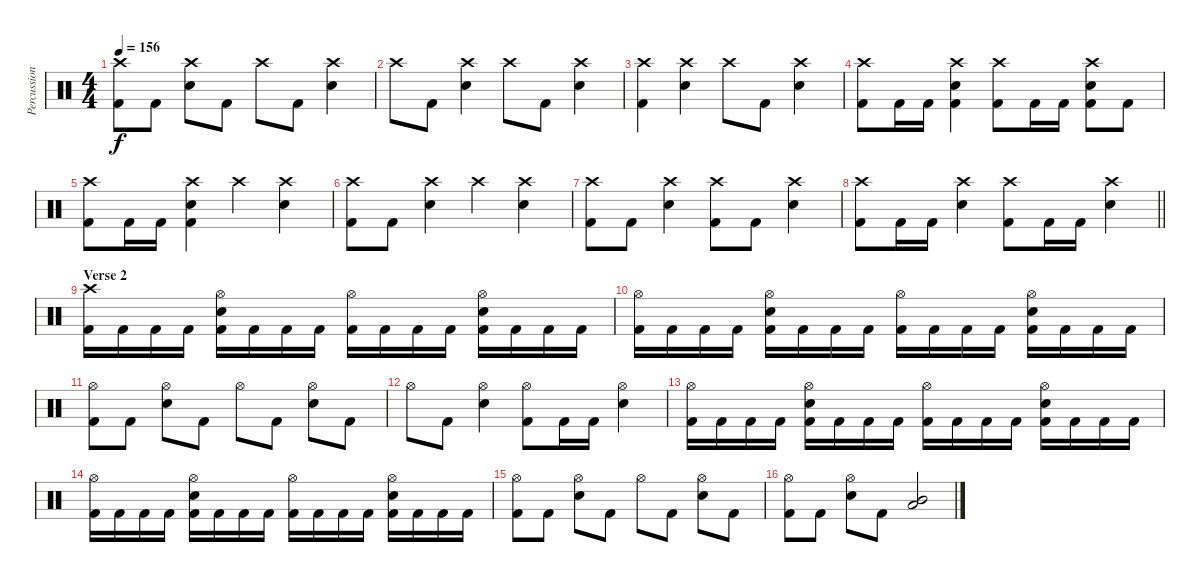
\track ("Percussion" "Percussion") {instrument percussion}
\staff {score}
\articulation defaults
\ts (4 4)
\tempo 156
\clef neutral
\ks c
("Crash high (hit)" "Kick (hit) 2").8{dy f} "Kick (hit) 2".8 ("Crash high (hit)" "Electric Snare (hit)").8 "Kick (hit) 2".8 "Crash high (hit)".8 "Kick (hit) 2".8 ("Crash high (hit)" "Electric Snare (hit)").4 |
"Crash high (hit)".8 "Kick (hit) 2".8 ("Crash high (hit)" "Electric Snare (hit)").4 "Crash high (hit)".8 "Kick (hit) 2".8 ("Crash high (hit)" "Electric Snare (hit)").4 |
("Crash high (hit)" "Kick (hit) 2").4 ("Crash high (hit)" "Electric Snare (hit)").4 "Crash high (hit)".8 "Kick (hit) 2".8 ("Crash high (hit)" "Electric Snare (hit)").4 |
("Crash high (hit)" "Kick (hit) 2").8 "Kick (hit) 2".16 "Kick (hit) 2".16 ("Crash high (hit)" "Electric Snare (hit)" "Kick (hit) 2").4 ("Crash high (hit)" "Kick (hit) 2").8 "Kick (hit) 2".16 "Kick (hit) 2".16 ("Crash high (hit)" "Electric Snare (hit)" "Kick (hit) 2").8 "Kick (hit) 2".8 |
("Crash high (hit)" "Kick (hit) 2").8 "Kick (hit) 2".16 "Kick (hit) 2".16 ("Crash high (hit)" "Electric Snare (hit)" "Kick (hit) 2").4 "Crash high (hit)".4 ("Crash high (hit)" "Electric Snare (hit)").4 |
("Crash high (hit)" "Kick (hit) 2").8 "Kick (hit) 2".8 ("Crash high (hit)" "Electric Snare (hit)").4 "Crash high (hit)".4 ("Crash high (hit)" "Electric Snare (hit)").4 |
("Crash high (hit)" "Kick (hit) 2").8 "Kick (hit) 2".8 ("Crash high (hit)" "Electric Snare (hit)").4 ("Crash high (hit)" "Kick (hit) 2").8 "Kick (hit) 2".8 ("Crash high (hit)" "Electric Snare (hit)").4 |
\barLineRight lightlight
("Crash high (hit)" "Kick (hit) 2").8 "Kick (hit) 2".16 "Kick (hit) 2".16 ("Crash high (hit)" "Electric Snare (hit)").4 ("Crash high (hit)" "Kick (hit) 2").8 "Kick (hit) 2".16 "Kick (hit) 2".16 ("Crash high (hit)" "Electric Snare (hit)").4 |
\section ("" "Verse 2")
("Crash high (hit)" "Kick (hit) 2").16 "Kick (hit) 2".16 "Kick (hit) 2".16 "Kick (hit) 2".16 ("Hi-Hat (open)" "Electric Snare (hit)" "Kick (hit) 2").16 "Kick (hit) 2".16 "Kick (hit) 2".16 "Kick (hit) 2".16 ("Hi-Hat (open)" "Kick (hit) 2").16 "Kick (hit) 2".16 "Kick (hit) 2".16 "Kick (hit) 2".16 ("Hi-Hat (open)" "Electric Snare (hit)" "Kick (hit) 2").16 "Kick (hit) 2".16 "Kick (hit) 2".16 "Kick (hit) 2".16 |
("Hi-Hat (open)" "Kick (hit) 2").16 "Kick (hit) 2".16 "Kick (hit) 2".16 "Kick (hit) 2".16 ("Hi-Hat (open)" "Electric Snare (hit)" "Kick (hit) 2").16 "Kick (hit) 2".16 "Kick (hit) 2".16 "Kick (hit) 2".16 ("Hi-Hat (open)" "Kick (hit) 2").16 "Kick (hit) 2".16 "Kick (hit) 2".16 "Kick (hit) 2".16 ("Hi-Hat (open)" "Electric Snare (hit)" "Kick (hit) 2").16 "Kick (hit) 2".16 "Kick (hit) 2".16 "Kick (hit) 2".16 |
("Hi-Hat (open)" "Kick (hit) 2").8 "Kick (hit) 2".8 ("Hi-Hat (open)" "Electric Snare (hit)").8 "Kick (hit) 2".8 "Hi-Hat (open)".8 "Kick (hit) 2".8 ("Hi-Hat (open)" "Electric Snare (hit)").8 "Kick (hit) 2".8 |
"Hi-Hat (open)".8 "Kick (hit) 2".8 ("Hi-Hat (open)" "Electric Snare (hit)").4 ("Hi-Hat (open)" "Kick (hit) 2").8 "Kick (hit) 2".16 "Kick (hit) 2".16 ("Hi-Hat (open)" "Electric Snare (hit)").4 |
("Hi-Hat (open)" "Kick (hit) 2").16 "Kick (hit) 2".16 "Kick (hit) 2".16 "Kick (hit) 2".16 ("Hi-Hat (open)" "Electric Snare (hit)" "Kick (hit) 2").16 "Kick (hit) 2".16 "Kick (hit) 2".16 "Kick (hit) 2".16 ("Hi-Hat (open)" "Kick (hit) 2").16 "Kick (hit) 2".16 "Kick (hit) 2".16 "Kick (hit) 2".16 ("Hi-Hat (open)" "Electric Snare (hit)" "Kick (hit) 2").16 "Kick (hit) 2".16 "Kick (hit) 2".16 "Kick (hit) 2".16 |
("Hi-Hat (open)" "Kick (hit) 2").16 "Kick (hit) 2".16 "Kick (hit) 2".16 "Kick (hit) 2".16 ("Hi-Hat (open)" "Electric Snare (hit)" "Kick (hit) 2").16 "Kick (hit) 2".16 "Kick (hit) 2".16 "Kick (hit) 2".16 ("Hi-Hat (open)" "Kick (hit) 2").16 "Kick (hit) 2".16 "Kick (hit) 2".16 "Kick (hit) 2".16 ("Hi-Hat (open)" "Electric Snare (hit)" "Kick (hit) 2").16 "Kick (hit) 2".16 "Kick (hit) 2".16 "Kick (hit) 2".16 |
("Hi-Hat (open)" "Kick (hit) 2").8 "Kick (hit) 2".8 ("Hi-Hat (open)" "Electric Snare (hit)").8 "Kick (hit) 2".8 "Hi-Hat (open)".8 "Kick (hit) 2".8 ("Hi-Hat (open)" "Electric Snare (hit)").8 "Kick (hit) 2".8 |
("Hi-Hat (open)" "Kick (hit) 2").8 "Kick (hit) 2".8 ("Hi-Hat (open)" "Electric Snare (hit)").8 "Kick (hit) 2".8 ("Mid Tom (hit)" "Low Tom (hit)").2
